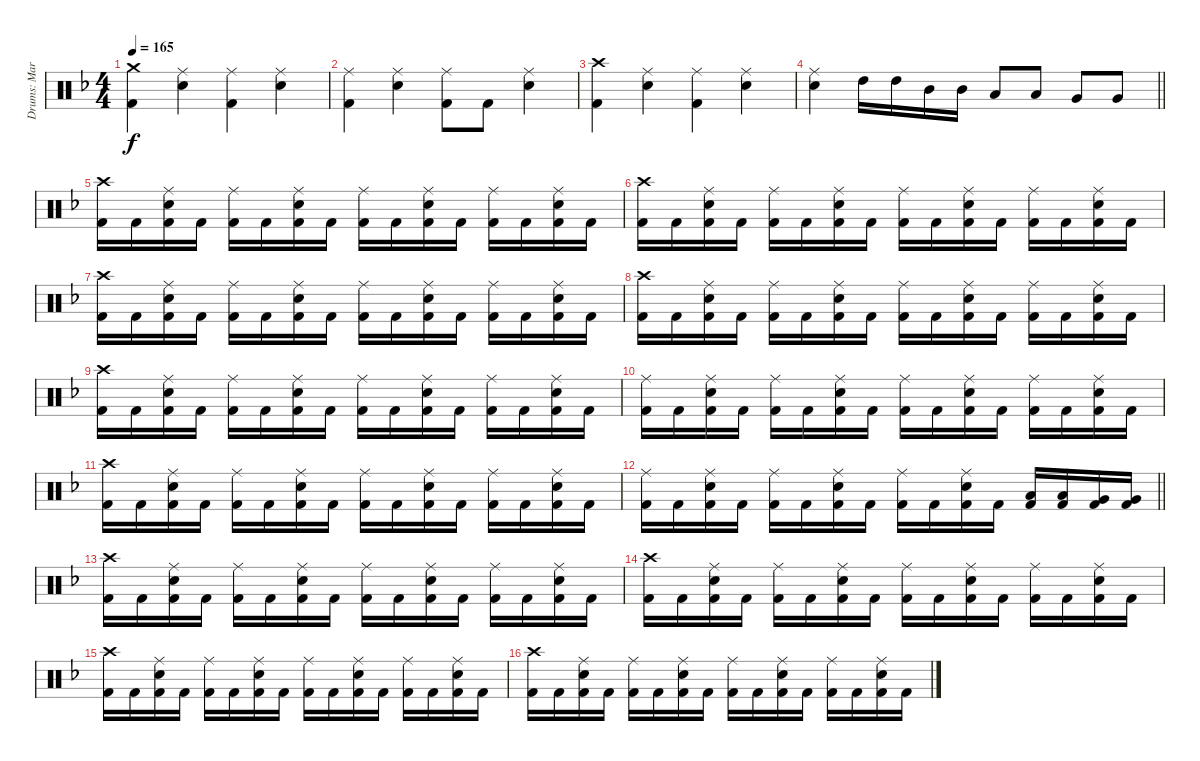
\track ("Drums: Martin Herzinger" "Drums: Mar") {instrument percussion}
\staff {score}
\articulation defaults
\ts (4 4)
\tempo 165
\clef neutral
\ks dminor
("Crash medium (hit)" "Kick (hit) 2").4{dy f} ("Ride (middle)" "Snare (hit) 2").4 ("Ride (middle)" "Kick (hit) 2").4 ("Ride (middle)" "Snare (hit) 2").4 |
("Ride (middle)" "Kick (hit) 2").4 ("Ride (middle)" "Snare (hit) 2").4 ("Ride (middle)" "Kick (hit) 2").8 "Kick (hit) 2".8 ("Ride (middle)" "Snare (hit) 2").4 |
("Crash high (hit)" "Kick (hit) 2").4 ("Ride (middle)" "Snare (hit) 2").4 ("Ride (middle)" "Kick (hit) 2").4 ("Ride (middle)" "Snare (hit) 2").4 |
\barLineRight lightlight
("Ride (middle)" "Snare (hit) 2").4 "High Tom (hit)".16 "High Tom (hit)".16 "Mid Tom (hit)".16 "Mid Tom (hit)".16 "Low Tom (hit)".8 "Low Tom (hit)".8 "Very Low Tom (hit)".8 "Very Low Tom (hit)".8 |
("Crash high (hit)" "Kick (hit) 2").16 "Kick (hit) 2".16 ("Ride (middle)" "Snare (hit) 2" "Kick (hit) 2").16 "Kick (hit) 2".16 ("Ride (middle)" "Kick (hit) 2").16 "Kick (hit) 2".16 ("Ride (middle)" "Snare (hit) 2" "Kick (hit) 2").16 "Kick (hit) 2".16 ("Ride (middle)" "Kick (hit) 2").16 "Kick (hit) 2".16 ("Ride (middle)" "Snare (hit) 2" "Kick (hit) 2").16 "Kick (hit) 2".16 ("Ride (middle)" "Kick (hit) 2").16 "Kick (hit) 2".16 ("Ride (middle)" "Snare (hit) 2" "Kick (hit) 2").16 "Kick (hit) 2".16 |
("Crash high (hit)" "Kick (hit) 2").16 "Kick (hit) 2".16 ("Ride (middle)" "Snare (hit) 2" "Kick (hit) 2").16 "Kick (hit) 2".16 ("Ride (middle)" "Kick (hit) 2").16 "Kick (hit) 2".16 ("Ride (middle)" "Snare (hit) 2" "Kick (hit) 2").16 "Kick (hit) 2".16 ("Ride (middle)" "Kick (hit) 2").16 "Kick (hit) 2".16 ("Ride (middle)" "Snare (hit) 2" "Kick (hit) 2").16 "Kick (hit) 2".16 ("Ride (middle)" "Kick (hit) 2").16 "Kick (hit) 2".16 ("Ride (middle)" "Snare (hit) 2" "Kick (hit) 2").16 "Kick (hit) 2".16 |
("Crash high (hit)" "Kick (hit) 2").16 "Kick (hit) 2".16 ("Ride (middle)" "Snare (hit) 2" "Kick (hit) 2").16 "Kick (hit) 2".16 ("Ride (middle)" "Kick (hit) 2").16 "Kick (hit) 2".16 ("Ride (middle)" "Snare (hit) 2" "Kick (hit) 2").16 "Kick (hit) 2".16 ("Ride (middle)" "Kick (hit) 2").16 "Kick (hit) 2".16 ("Ride (middle)" "Snare (hit) 2" "Kick (hit) 2").16 "Kick (hit) 2".16 ("Ride (middle)" "Kick (hit) 2").16 "Kick (hit) 2".16 ("Ride (middle)" "Snare (hit) 2" "Kick (hit) 2").16 "Kick (hit) 2".16 |
("Crash high (hit)" "Kick (hit) 2").16 "Kick (hit) 2".16 ("Ride (middle)" "Snare (hit) 2" "Kick (hit) 2").16 "Kick (hit) 2".16 ("Ride (middle)" "Kick (hit) 2").16 "Kick (hit) 2".16 ("Ride (middle)" "Snare (hit) 2" "Kick (hit) 2").16 "Kick (hit) 2".16 ("Ride (middle)" "Kick (hit) 2").16 "Kick (hit) 2".16 ("Ride (middle)" "Snare (hit) 2" "Kick (hit) 2").16 "Kick (hit) 2".16 ("Ride (middle)" "Kick (hit) 2").16 "Kick (hit) 2".16 ("Ride (middle)" "Snare (hit) 2" "Kick (hit) 2").16 "Kick (hit) 2".16 |
("Crash high (hit)" "Kick (hit) 2").16 "Kick (hit) 2".16 ("Ride (middle)" "Snare (hit) 2" "Kick (hit) 2").16 "Kick (hit) 2".16 ("Ride (middle)" "Kick (hit) 2").16 "Kick (hit) 2".16 ("Ride (middle)" "Snare (hit) 2" "Kick (hit) 2").16 "Kick (hit) 2".16 ("Ride (middle)" "Kick (hit) 2").16 "Kick (hit) 2".16 ("Ride (middle)" "Snare (hit) 2" "Kick (hit) 2").16 "Kick (hit) 2".16 ("Ride (middle)" "Kick (hit) 2").16 "Kick (hit) 2".16 ("Ride (middle)" "Snare (hit) 2" "Kick (hit) 2").16 "Kick (hit) 2".16 |
("Ride (middle)" "Kick (hit) 2").16 "Kick (hit) 2".16 ("Ride (middle)" "Snare (hit) 2" "Kick (hit) 2").16 "Kick (hit) 2".16 ("Ride (middle)" "Kick (hit) 2").16 "Kick (hit) 2".16 ("Ride (middle)" "Snare (hit) 2" "Kick (hit) 2").16 "Kick (hit) 2".16 ("Ride (middle)" "Kick (hit) 2").16 "Kick (hit) 2".16 ("Ride (middle)" "Snare (hit) 2" "Kick (hit) 2").16 "Kick (hit) 2".16 ("Ride (middle)" "Kick (hit) 2").16 "Kick (hit) 2".16 ("Ride (middle)" "Snare (hit) 2" "Kick (hit) 2").16 "Kick (hit) 2".16 |
("Crash high (hit)" "Kick (hit) 2").16 "Kick (hit) 2".16 ("Ride (middle)" "Snare (hit) 2" "Kick (hit) 2").16 "Kick (hit) 2".16 ("Ride (middle)" "Kick (hit) 2").16 "Kick (hit) 2".16 ("Ride (middle)" "Snare (hit) 2" "Kick (hit) 2").16 "Kick (hit) 2".16 ("Ride (middle)" "Kick (hit) 2").16 "Kick (hit) 2".16 ("Ride (middle)" "Snare (hit) 2" "Kick (hit) 2").16 "Kick (hit) 2".16 ("Ride (middle)" "Kick (hit) 2").16 "Kick (hit) 2".16 ("Ride (middle)" "Snare (hit) 2" "Kick (hit) 2").16 "Kick (hit) 2".16 |
\barLineRight lightlight
("Ride (middle)" "Kick (hit) 2").16 "Kick (hit) 2".16 ("Ride (middle)" "Snare (hit) 2" "Kick (hit) 2").16 "Kick (hit) 2".16 ("Ride (middle)" "Kick (hit) 2").16 "Kick (hit) 2".16 ("Ride (middle)" "Snare (hit) 2" "Kick (hit) 2").16 "Kick (hit) 2".16 ("Ride (middle)" "Kick (hit) 2").16 "Kick (hit) 2".16 ("Ride (middle)" "Snare (hit) 2" "Kick (hit) 2").16 "Kick (hit) 2".16 ("Low Tom (hit)" "Kick (hit) 2").16 ("Low Tom (hit)" "Kick (hit) 2").16 ("Very Low Tom (hit)" "Kick (hit) 2").16 ("Very Low Tom (hit)" "Kick (hit) 2").16 |
("Crash high (hit)" "Kick (hit) 2").16 "Kick (hit) 2".16 ("Ride (middle)" "Snare (hit) 2" "Kick (hit) 2").16 "Kick (hit) 2".16 ("Ride (middle)" "Kick (hit) 2").16 "Kick (hit) 2".16 ("Ride (middle)" "Snare (hit) 2" "Kick (hit) 2").16 "Kick (hit) 2".16 ("Ride (middle)" "Kick (hit) 2").16 "Kick (hit) 2".16 ("Ride (middle)" "Snare (hit) 2" "Kick (hit) 2").16 "Kick (hit) 2".16 ("Ride (middle)" "Kick (hit) 2").16 "Kick (hit) 2".16 ("Ride (middle)" "Snare (hit) 2" "Kick (hit) 2").16 "Kick (hit) 2".16 |
("Crash high (hit)" "Kick (hit) 2").16 "Kick (hit) 2".16 ("Ride (middle)" "Snare (hit) 2" "Kick (hit) 2").16 "Kick (hit) 2".16 ("Ride (middle)" "Kick (hit) 2").16 "Kick (hit) 2".16 ("Ride (middle)" "Snare (hit) 2" "Kick (hit) 2").16 "Kick (hit) 2".16 ("Ride (middle)" "Kick (hit) 2").16 "Kick (hit) 2".16 ("Ride (middle)" "Snare (hit) 2" "Kick (hit) 2").16 "Kick (hit) 2".16 ("Ride (middle)" "Kick (hit) 2").16 "Kick (hit) 2".16 ("Ride (middle)" "Snare (hit) 2" "Kick (hit) 2").16 "Kick (hit) 2".16 |
("Crash high (hit)" "Kick (hit) 2").16 "Kick (hit) 2".16 ("Ride (middle)" "Snare (hit) 2" "Kick (hit) 2").16 "Kick (hit) 2".16 ("Ride (middle)" "Kick (hit) 2").16 "Kick (hit) 2".16 ("Ride (middle)" "Snare (hit) 2" "Kick (hit) 2").16 "Kick (hit) 2".16 ("Ride (middle)" "Kick (hit) 2").16 "Kick (hit) 2".16 ("Ride (middle)" "Snare (hit) 2" "Kick (hit) 2").16 "Kick (hit) 2".16 ("Ride (middle)" "Kick (hit) 2").16 "Kick (hit) 2".16 ("Ride (middle)" "Snare (hit) 2" "Kick (hit) 2").16 "Kick (hit) 2".16 |
("Crash high (hit)" "Kick (hit) 2").16 "Kick (hit) 2".16 ("Ride (middle)" "Snare (hit) 2" "Kick (hit) 2").16 "Kick (hit) 2".16 ("Ride (middle)" "Kick (hit) 2").16 "Kick (hit) 2".16 ("Ride (middle)" "Snare (hit) 2" "Kick (hit) 2").16 "Kick (hit) 2".16 ("Ride (middle)" "Kick (hit) 2").16 "Kick (hit) 2".16 ("Ride (middle)" "Snare (hit) 2" "Kick (hit) 2").16 "Kick (hit) 2".16 ("Ride (middle)" "Kick (hit) 2").16 "Kick (hit) 2".16 ("Ride (middle)" "Snare (hit) 2" "Kick (hit) 2").16 "Kick (hit) 2".16
